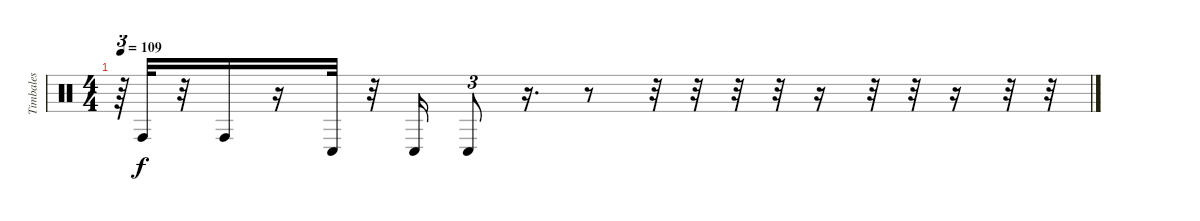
\track ("Timbales" "Timbales") {instrument percussion}
\staff {score}
\articulation defaults
\ts (4 4)
\tempo 109
\clef neutral
\ks c
r.64{tu (3 2) dy f} "Conga high (hit)".32 r.32 "Conga high (hit)".16 r.16 "Conga low (hit)".32 r.32 "Conga low (hit)".16 "Conga low (hit)".8{tu (3 2)} r.16{d} r.8 r.32 r.32 r.32 r.32 r.16 r.32 r.32 r.16 r.32 r.32
